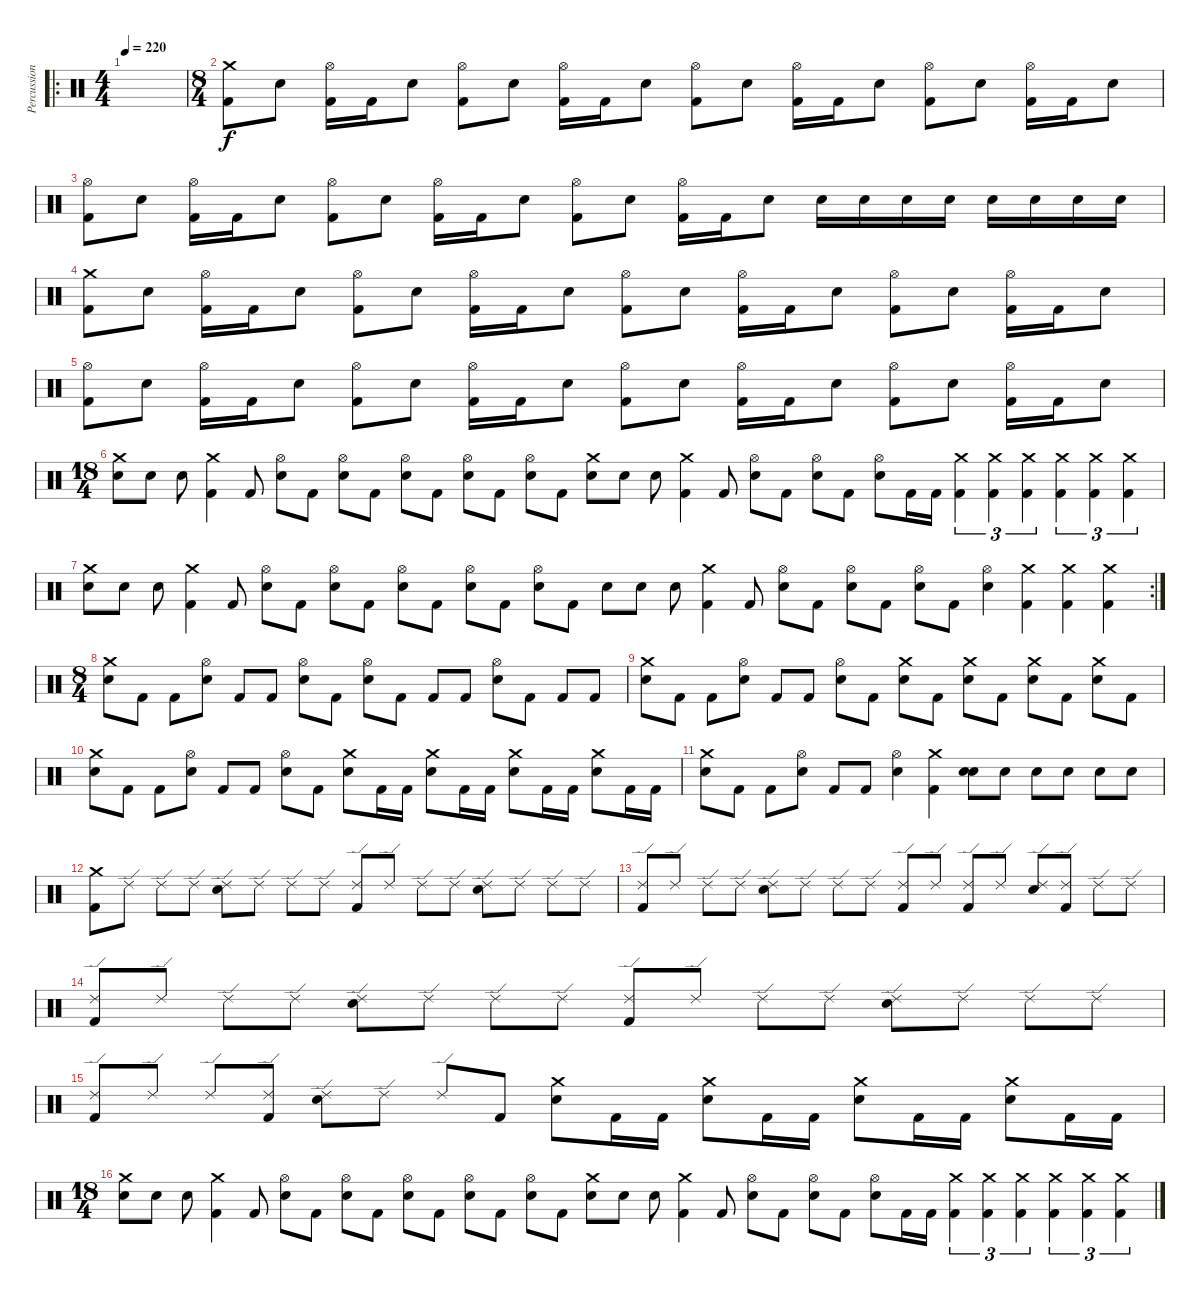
\track ("Percussion" "Percussion") {instrument percussion}
\staff {score}
\articulation defaults
\ro
\ts (4 4)
\tempo 220
\clef neutral
\ks c
|
\ts (8 4)
("Crash medium (hit)" "Kick (hit) 2").8 "Electric Snare (hit)".8 ("Hi-Hat (open)" "Kick (hit) 2").16 "Kick (hit) 2".16 "Electric Snare (hit)".8 ("Hi-Hat (open)" "Kick (hit) 2").8 "Electric Snare (hit)".8 ("Hi-Hat (open)" "Kick (hit) 2").16 "Kick (hit) 2".16 "Electric Snare (hit)".8 ("Hi-Hat (open)" "Kick (hit) 2").8 "Electric Snare (hit)".8 ("Hi-Hat (open)" "Kick (hit) 2").16 "Kick (hit) 2".16 "Electric Snare (hit)".8 ("Hi-Hat (open)" "Kick (hit) 2").8 "Electric Snare (hit)".8 ("Hi-Hat (open)" "Kick (hit) 2").16 "Kick (hit) 2".16 "Electric Snare (hit)".8 |
("Hi-Hat (open)" "Kick (hit) 2").8 "Electric Snare (hit)".8 ("Hi-Hat (open)" "Kick (hit) 2").16 "Kick (hit) 2".16 "Electric Snare (hit)".8 ("Hi-Hat (open)" "Kick (hit) 2").8 "Electric Snare (hit)".8 ("Hi-Hat (open)" "Kick (hit) 2").16 "Kick (hit) 2".16 "Electric Snare (hit)".8 ("Hi-Hat (open)" "Kick (hit) 2").8 "Electric Snare (hit)".8 ("Hi-Hat (open)" "Kick (hit) 2").16 "Kick (hit) 2".16 "Electric Snare (hit)".8 "Electric Snare (hit)".16 "Electric Snare (hit)".16 "Electric Snare (hit)".16 "Electric Snare (hit)".16 "Electric Snare (hit)".16 "Electric Snare (hit)".16 "Electric Snare (hit)".16 "Electric Snare (hit)".16 |
("Crash medium (hit)" "Kick (hit) 2").8 "Electric Snare (hit)".8 ("Hi-Hat (open)" "Kick (hit) 2").16 "Kick (hit) 2".16 "Electric Snare (hit)".8 ("Hi-Hat (open)" "Kick (hit) 2").8 "Electric Snare (hit)".8 ("Hi-Hat (open)" "Kick (hit) 2").16 "Kick (hit) 2".16 "Electric Snare (hit)".8 ("Hi-Hat (open)" "Kick (hit) 2").8 "Electric Snare (hit)".8 ("Hi-Hat (open)" "Kick (hit) 2").16 "Kick (hit) 2".16 "Electric Snare (hit)".8 ("Hi-Hat (open)" "Kick (hit) 2").8 "Electric Snare (hit)".8 ("Hi-Hat (open)" "Kick (hit) 2").16 "Kick (hit) 2".16 "Electric Snare (hit)".8 |
("Hi-Hat (open)" "Kick (hit) 2").8 "Electric Snare (hit)".8 ("Hi-Hat (open)" "Kick (hit) 2").16 "Kick (hit) 2".16 "Electric Snare (hit)".8 ("Hi-Hat (open)" "Kick (hit) 2").8 "Electric Snare (hit)".8 ("Hi-Hat (open)" "Kick (hit) 2").16 "Kick (hit) 2".16 "Electric Snare (hit)".8 ("Hi-Hat (open)" "Kick (hit) 2").8 "Electric Snare (hit)".8 ("Hi-Hat (open)" "Kick (hit) 2").16 "Kick (hit) 2".16 "Electric Snare (hit)".8 ("Hi-Hat (open)" "Kick (hit) 2").8 "Electric Snare (hit)".8 ("Hi-Hat (open)" "Kick (hit) 2").16 "Kick (hit) 2".16 "Electric Snare (hit)".8 |
\ts (18 4)
("Crash medium (hit)" "Electric Snare (hit)").8 "Electric Snare (hit)".8 "Electric Snare (hit)".8 ("Crash medium (hit)" "Kick (hit) 2").4 "Kick (hit) 2".8 ("Hi-Hat (open)" "Electric Snare (hit)").8 "Kick (hit) 2".8 ("Hi-Hat (open)" "Electric Snare (hit)").8 "Kick (hit) 2".8 ("Hi-Hat (open)" "Electric Snare (hit)").8 "Kick (hit) 2".8 ("Hi-Hat (open)" "Electric Snare (hit)").8 "Kick (hit) 2".8 ("Hi-Hat (open)" "Electric Snare (hit)").8 "Kick (hit) 2".8 ("Crash medium (hit)" "Electric Snare (hit)").8 "Electric Snare (hit)".8 "Electric Snare (hit)".8 ("Crash medium (hit)" "Kick (hit) 2").4 "Kick (hit) 2".8 ("Hi-Hat (open)" "Electric Snare (hit)").8 "Kick (hit) 2".8 ("Hi-Hat (open)" "Electric Snare (hit)").8 "Kick (hit) 2".8 ("Hi-Hat (open)" "Electric Snare (hit)").8 "Kick (hit) 2".16 "Kick (hit) 2".16 ("Crash medium (hit)" "Kick (hit) 2").4{tu (3 2)} ("Crash medium (hit)" "Kick (hit) 2").4{tu (3 2)} ("Crash medium (hit)" "Kick (hit) 2").4{tu (3 2)} ("Crash medium (hit)" "Kick (hit) 2").4{tu (3 2)} ("Crash medium (hit)" "Kick (hit) 2").4{tu (3 2)} ("Crash medium (hit)" "Kick (hit) 2").4{tu (3 2)} |
\rc 2
("Crash medium (hit)" "Electric Snare (hit)").8 "Electric Snare (hit)".8 "Electric Snare (hit)".8 ("Crash medium (hit)" "Kick (hit) 2").4 "Kick (hit) 2".8 ("Hi-Hat (open)" "Electric Snare (hit)").8 "Kick (hit) 2".8 ("Hi-Hat (open)" "Electric Snare (hit)").8 "Kick (hit) 2".8 ("Hi-Hat (open)" "Electric Snare (hit)").8 "Kick (hit) 2".8 ("Hi-Hat (open)" "Electric Snare (hit)").8 "Kick (hit) 2".8 ("Hi-Hat (open)" "Electric Snare (hit)").8 "Kick (hit) 2".8 "Electric Snare (hit)".8 "Electric Snare (hit)".8 "Electric Snare (hit)".8 ("Crash medium (hit)" "Kick (hit) 2").4 "Kick (hit) 2".8 ("Hi-Hat (open)" "Electric Snare (hit)").8 "Kick (hit) 2".8 ("Hi-Hat (open)" "Electric Snare (hit)").8 "Kick (hit) 2".8 ("Hi-Hat (open)" "Electric Snare (hit)").8 "Kick (hit) 2".8 ("Hi-Hat (open)" "Electric Snare (hit)").4 ("Crash medium (hit)" "Kick (hit) 2").4 ("Crash medium (hit)" "Kick (hit) 2").4 ("Crash medium (hit)" "Kick (hit) 2").4 |
\ts (8 4)
("Crash medium (hit)" "Electric Snare (hit)").8 "Kick (hit) 2".8 "Kick (hit) 2".8 ("Hi-Hat (open)" "Electric Snare (hit)").8 "Kick (hit) 2".8 "Kick (hit) 2".8 ("Hi-Hat (open)" "Electric Snare (hit)").8 "Kick (hit) 2".8 ("Hi-Hat (open)" "Electric Snare (hit)").8 "Kick (hit) 2".8 "Kick (hit) 2".8 "Kick (hit) 2".8 ("Hi-Hat (open)" "Electric Snare (hit)").8 "Kick (hit) 2".8 "Kick (hit) 2".8 "Kick (hit) 2".8 |
("Crash medium (hit)" "Electric Snare (hit)").8 "Kick (hit) 2".8 "Kick (hit) 2".8 ("Hi-Hat (open)" "Electric Snare (hit)").8 "Kick (hit) 2".8 "Kick (hit) 2".8 ("Hi-Hat (open)" "Electric Snare (hit)").8 "Kick (hit) 2".8 ("Crash medium (hit)" "Electric Snare (hit)").8 "Kick (hit) 2".8 ("Crash medium (hit)" "Electric Snare (hit)").8 "Kick (hit) 2".8 ("Crash medium (hit)" "Electric Snare (hit)").8 "Kick (hit) 2".8 ("Crash medium (hit)" "Electric Snare (hit)").8 "Kick (hit) 2".8 |
("Crash medium (hit)" "Electric Snare (hit)").8 "Kick (hit) 2".8 "Kick (hit) 2".8 ("Hi-Hat (open)" "Electric Snare (hit)").8 "Kick (hit) 2".8 "Kick (hit) 2".8 ("Hi-Hat (open)" "Electric Snare (hit)").8 "Kick (hit) 2".8 ("Crash medium (hit)" "Electric Snare (hit)").8 "Kick (hit) 2".16 "Kick (hit) 2".16 ("Crash medium (hit)" "Electric Snare (hit)").8 "Kick (hit) 2".16 "Kick (hit) 2".16 ("Crash medium (hit)" "Electric Snare (hit)").8 "Kick (hit) 2".16 "Kick (hit) 2".16 ("Crash medium (hit)" "Electric Snare (hit)").8 "Kick (hit) 2".16 "Kick (hit) 2".16 |
("Crash medium (hit)" "Electric Snare (hit)").8 "Kick (hit) 2".8 "Kick (hit) 2".8 ("Hi-Hat (open)" "Electric Snare (hit)").8 "Kick (hit) 2".8 "Kick (hit) 2".8 ("Hi-Hat (open)" "Electric Snare (hit)").4 ("Crash medium (hit)" "Kick (hit) 2").4 ("Electric Snare (hit)" "Electric Snare (hit)").8 "Electric Snare (hit)".8 "Electric Snare (hit)".8 "Electric Snare (hit)".8 "Electric Snare (hit)".8 "Electric Snare (hit)".8 |
("Crash medium (hit)" "Kick (hit) 2").8 "Ride (edge) 2".8 "Ride (edge) 2".8 "Ride (edge) 2".8 ("Ride (edge) 2" "Electric Snare (hit)").8 "Ride (edge) 2".8 "Ride (edge) 2".8 "Ride (edge) 2".8 ("Ride (edge) 2" "Kick (hit) 2").8 "Ride (edge) 2".8 "Ride (edge) 2".8 "Ride (edge) 2".8 ("Ride (edge) 2" "Electric Snare (hit)").8 "Ride (edge) 2".8 "Ride (edge) 2".8 "Ride (edge) 2".8 |
("Ride (edge) 2" "Kick (hit) 2").8 "Ride (edge) 2".8 "Ride (edge) 2".8 "Ride (edge) 2".8 ("Ride (edge) 2" "Electric Snare (hit)").8 "Ride (edge) 2".8 "Ride (edge) 2".8 "Ride (edge) 2".8 ("Ride (edge) 2" "Kick (hit) 2").8 "Ride (edge) 2".8 ("Ride (edge) 2" "Kick (hit) 2").8 "Ride (edge) 2".8 ("Ride (edge) 2" "Electric Snare (hit)").8 ("Ride (edge) 2" "Kick (hit) 2").8 "Ride (edge) 2".8 "Ride (edge) 2".8 |
("Ride (edge) 2" "Kick (hit) 2").8 "Ride (edge) 2".8 "Ride (edge) 2".8 "Ride (edge) 2".8 ("Ride (edge) 2" "Electric Snare (hit)").8 "Ride (edge) 2".8 "Ride (edge) 2".8 "Ride (edge) 2".8 ("Ride (edge) 2" "Kick (hit) 2").8 "Ride (edge) 2".8 "Ride (edge) 2".8 "Ride (edge) 2".8 ("Ride (edge) 2" "Electric Snare (hit)").8 "Ride (edge) 2".8 "Ride (edge) 2".8 "Ride (edge) 2".8 |
("Ride (edge) 2" "Kick (hit) 2").8 "Ride (edge) 2".8 "Ride (edge) 2".8 ("Ride (edge) 2" "Kick (hit) 2").8 ("Ride (edge) 2" "Electric Snare (hit)").8 "Ride (edge) 2".8 "Ride (edge) 2".8 "Kick (hit) 2".8 ("Crash medium (hit)" "Electric Snare (hit)").8 "Kick (hit) 2".16 "Kick (hit) 2".16 ("Crash medium (hit)" "Electric Snare (hit)").8 "Kick (hit) 2".16 "Kick (hit) 2".16 ("Crash medium (hit)" "Electric Snare (hit)").8 "Kick (hit) 2".16 "Kick (hit) 2".16 ("Crash medium (hit)" "Electric Snare (hit)").8 "Kick (hit) 2".16 "Kick (hit) 2".16 |
\ts (18 4)
("Crash medium (hit)" "Electric Snare (hit)").8 "Electric Snare (hit)".8 "Electric Snare (hit)".8 ("Crash medium (hit)" "Kick (hit) 2").4 "Kick (hit) 2".8 ("Hi-Hat (open)" "Electric Snare (hit)").8 "Kick (hit) 2".8 ("Hi-Hat (open)" "Electric Snare (hit)").8 "Kick (hit) 2".8 ("Hi-Hat (open)" "Electric Snare (hit)").8 "Kick (hit) 2".8 ("Hi-Hat (open)" "Electric Snare (hit)").8 "Kick (hit) 2".8 ("Hi-Hat (open)" "Electric Snare (hit)").8 "Kick (hit) 2".8 ("Crash medium (hit)" "Electric Snare (hit)").8 "Electric Snare (hit)".8 "Electric Snare (hit)".8 ("Crash medium (hit)" "Kick (hit) 2").4 "Kick (hit) 2".8 ("Hi-Hat (open)" "Electric Snare (hit)").8 "Kick (hit) 2".8 ("Hi-Hat (open)" "Electric Snare (hit)").8 "Kick (hit) 2".8 ("Hi-Hat (open)" "Electric Snare (hit)").8 "Kick (hit) 2".16 "Kick (hit) 2".16 ("Crash medium (hit)" "Kick (hit) 2").4{tu (3 2)} ("Crash medium (hit)" "Kick (hit) 2").4{tu (3 2)} ("Crash medium (hit)" "Kick (hit) 2").4{tu (3 2)} ("Crash medium (hit)" "Kick (hit) 2").4{tu (3 2)} ("Crash medium (hit)" "Kick (hit) 2").4{tu (3 2)} ("Crash medium (hit)" "Kick (hit) 2").4{tu (3 2)}
